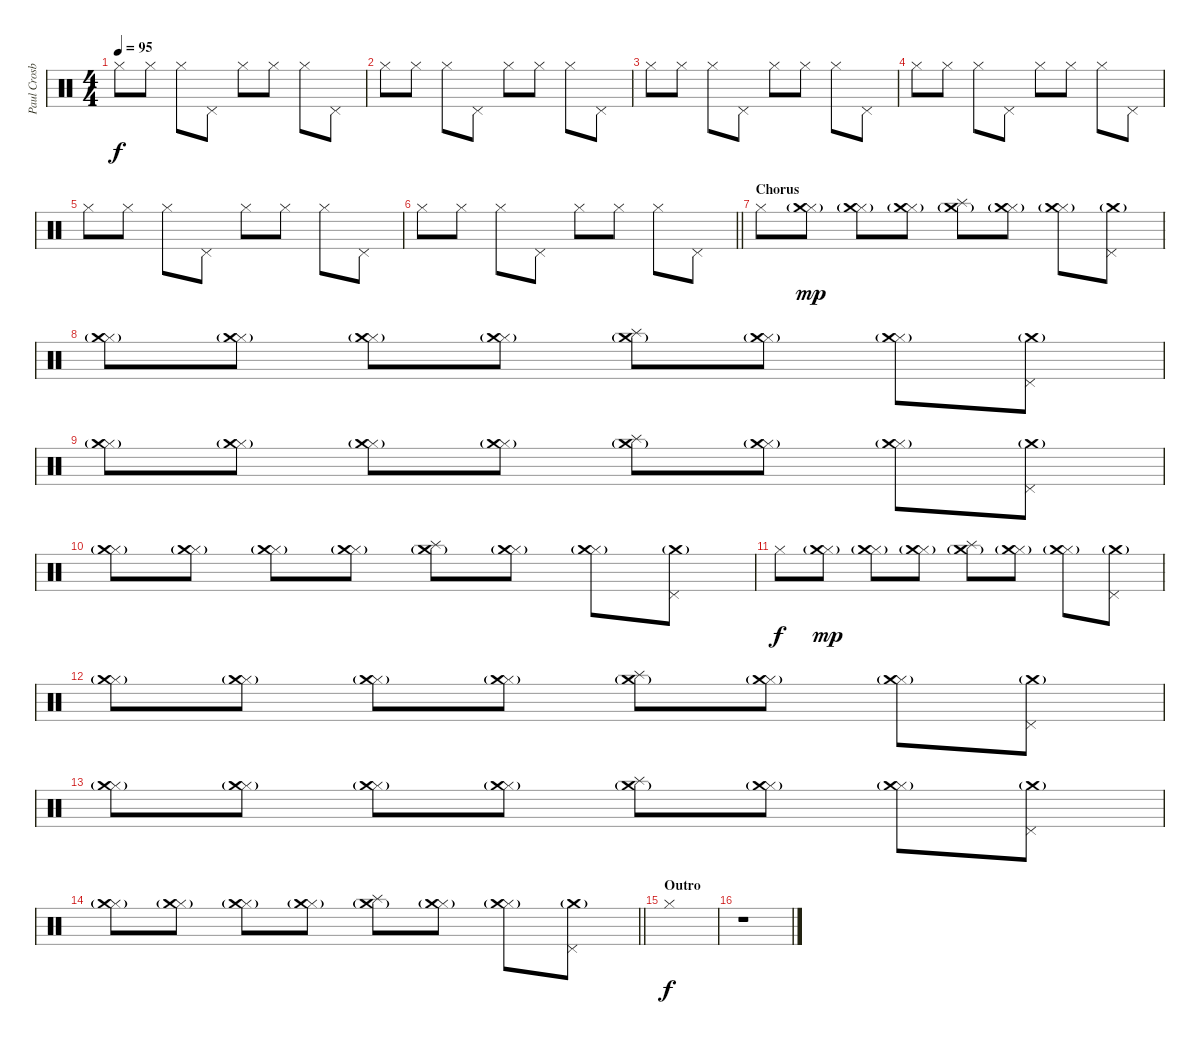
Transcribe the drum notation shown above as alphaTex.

\track ("Paul Crosby (Drums)" "Paul Crosb") {instrument percussion}
\staff {score}
\articulation defaults
\ts (4 4)
\tempo 95
\clef neutral
\ks c "Hi-Hat (closed)".8{dy f} "Hi-Hat (closed)".8 "Hi-Hat (closed)".8 "Pedal Hi-Hat (hit)".8 "Hi-Hat (closed)".8 "Hi-Hat (closed)".8 "Hi-Hat (closed)".8 "Pedal Hi-Hat (hit)".8
|
"Hi-Hat (closed)".8 "Hi-Hat (closed)".8 "Hi-Hat (closed)".8 "Pedal Hi-Hat (hit)".8 "Hi-Hat (closed)".8 "Hi-Hat (closed)".8 "Hi-Hat (closed)".8 "Pedal Hi-Hat (hit)".8 |
"Hi-Hat (closed)".8 "Hi-Hat (closed)".8 "Hi-Hat (closed)".8 "Pedal Hi-Hat (hit)".8 "Hi-Hat (closed)".8 "Hi-Hat (closed)".8 "Hi-Hat (closed)".8 "Pedal Hi-Hat (hit)".8 |
"Hi-Hat (closed)".8 "Hi-Hat (closed)".8 "Hi-Hat (closed)".8 "Pedal Hi-Hat (hit)".8 "Hi-Hat (closed)".8 "Hi-Hat (closed)".8 "Hi-Hat (closed)".8 "Pedal Hi-Hat (hit)".8 |
"Hi-Hat (closed)".8 "Hi-Hat (closed)".8 "Hi-Hat (closed)".8 "Pedal Hi-Hat (hit)".8 "Hi-Hat (closed)".8 "Hi-Hat (closed)".8 "Hi-Hat (closed)".8 "Pedal Hi-Hat (hit)".8 |
\barLineRight lightlight "Hi-Hat (closed)".8 "Hi-Hat (closed)".8 "Hi-Hat (closed)".8 "Pedal Hi-Hat (hit)".8 "Hi-Hat (closed)".8 "Hi-Hat (closed)".8 "Hi-Hat (closed)".8 "Pedal Hi-Hat (hit)".8
|
\section ("" "Chorus")
"Hi-Hat (closed)".8 ("Hi-Hat (closed)" "Crash medium (hit)"{g}).8{dy mp} ("Hi-Hat (closed)" "Crash medium (hit)"{g}).8 ("Hi-Hat (closed)" "Crash medium (hit)"{g}).8 ("Splash (hit)" "Crash medium (hit)"{g}).8 ("Hi-Hat (closed)" "Crash medium (hit)"{g}).8 ("Hi-Hat (closed)" "Crash medium (hit)"{g}).8 ("Pedal Hi-Hat (hit)" "Crash medium (hit)"{g}).8 |
("Hi-Hat (closed)" "Crash medium (hit)"{g}).8 ("Hi-Hat (closed)" "Crash medium (hit)"{g}).8 ("Hi-Hat (closed)" "Crash medium (hit)"{g}).8 ("Hi-Hat (closed)" "Crash medium (hit)"{g}).8 ("Splash (hit)" "Crash medium (hit)"{g}).8 ("Hi-Hat (closed)" "Crash medium (hit)"{g}).8 ("Hi-Hat (closed)" "Crash medium (hit)"{g}).8 ("Pedal Hi-Hat (hit)" "Crash medium (hit)"{g}).8 |
("Hi-Hat (closed)" "Crash medium (hit)"{g}).8 ("Hi-Hat (closed)" "Crash medium (hit)"{g}).8 ("Hi-Hat (closed)" "Crash medium (hit)"{g}).8 ("Hi-Hat (closed)" "Crash medium (hit)"{g}).8 ("Splash (hit)" "Crash medium (hit)"{g}).8 ("Hi-Hat (closed)" "Crash medium (hit)"{g}).8 ("Hi-Hat (closed)" "Crash medium (hit)"{g}).8 ("Pedal Hi-Hat (hit)" "Crash medium (hit)"{g}).8 |
("Hi-Hat (closed)" "Crash medium (hit)"{g}).8 ("Hi-Hat (closed)" "Crash medium (hit)"{g}).8 ("Hi-Hat (closed)" "Crash medium (hit)"{g}).8 ("Hi-Hat (closed)" "Crash medium (hit)"{g}).8 ("Splash (hit)" "Crash medium (hit)"{g}).8 ("Hi-Hat (closed)" "Crash medium (hit)"{g}).8 ("Hi-Hat (closed)" "Crash medium (hit)"{g}).8 ("Pedal Hi-Hat (hit)" "Crash medium (hit)"{g}).8 |
"Hi-Hat (closed)".8{dy f} ("Hi-Hat (closed)" "Crash medium (hit)"{g}).8{dy mp} ("Hi-Hat (closed)" "Crash medium (hit)"{g}).8 ("Hi-Hat (closed)" "Crash medium (hit)"{g}).8 ("Splash (hit)" "Crash medium (hit)"{g}).8 ("Hi-Hat (closed)" "Crash medium (hit)"{g}).8 ("Hi-Hat (closed)" "Crash medium (hit)"{g}).8 ("Pedal Hi-Hat (hit)" "Crash medium (hit)"{g}).8 |
("Hi-Hat (closed)" "Crash medium (hit)"{g}).8 ("Hi-Hat (closed)" "Crash medium (hit)"{g}).8 ("Hi-Hat (closed)" "Crash medium (hit)"{g}).8 ("Hi-Hat (closed)" "Crash medium (hit)"{g}).8 ("Splash (hit)" "Crash medium (hit)"{g}).8 ("Hi-Hat (closed)" "Crash medium (hit)"{g}).8 ("Hi-Hat (closed)" "Crash medium (hit)"{g}).8 ("Pedal Hi-Hat (hit)" "Crash medium (hit)"{g}).8 |
("Hi-Hat (closed)" "Crash medium (hit)"{g}).8 ("Hi-Hat (closed)" "Crash medium (hit)"{g}).8 ("Hi-Hat (closed)" "Crash medium (hit)"{g}).8 ("Hi-Hat (closed)" "Crash medium (hit)"{g}).8 ("Splash (hit)" "Crash medium (hit)"{g}).8 ("Hi-Hat (closed)" "Crash medium (hit)"{g}).8 ("Hi-Hat (closed)" "Crash medium (hit)"{g}).8 ("Pedal Hi-Hat (hit)" "Crash medium (hit)"{g}).8 |
\barLineRight lightlight
("Hi-Hat (closed)" "Crash medium (hit)"{g}).8 ("Hi-Hat (closed)" "Crash medium (hit)"{g}).8 ("Hi-Hat (closed)" "Crash medium (hit)"{g}).8 ("Hi-Hat (closed)" "Crash medium (hit)"{g}).8 ("Splash (hit)" "Crash medium (hit)"{g}).8 ("Hi-Hat (closed)" "Crash medium (hit)"{g}).8 ("Hi-Hat (closed)" "Crash medium (hit)"{g}).8 ("Pedal Hi-Hat (hit)" "Crash medium (hit)"{g}).8 |
\section ("" "Outro")
"Hi-Hat (closed)".1{dy f} |
r.1
